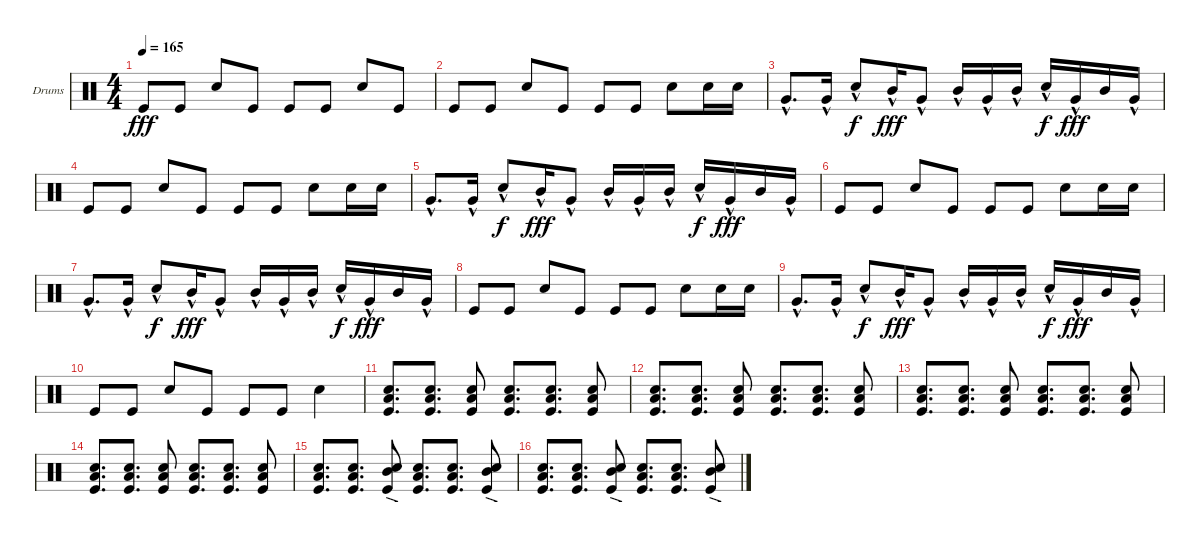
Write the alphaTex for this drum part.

\defaultSystemsLayout 4
\bracketExtendMode groupsimilarinstruments
\firstSystemTrackNameOrientation horizontal
\otherSystemsTrackNameOrientation horizontal
\track ("Helders" "Drums") {instrument percussion}
\staff {score}
\articulation defaults
\ts (4 4)
\tempo 165
\clef neutral
\ks c "Kick (hit)".8{dy fff} "Kick (hit)".8 "Snare (hit) 2".8 "Kick (hit)".8 "Kick (hit)".8 "Kick (hit)".8 "Snare (hit) 2".8 "Kick (hit)".8
|
"Kick (hit)".8 "Kick (hit)".8 "Snare (hit) 2".8 "Kick (hit)".8 "Kick (hit)".8 "Kick (hit)".8 "Snare (hit) 2".8 "Snare (hit) 2".16 "Snare (hit) 2".16 |
"Very Low Tom (hit)"{hac}.8{d} "Very Low Tom (hit)"{hac}.16 "Snare (hit) 2"{hac}.8{dy f} "Mid Tom (hit)"{hac}.16{dy fff} "Very Low Tom (hit)"{hac}.8 "Mid Tom (hit)"{hac}.16 "Very Low Tom (hit)"{hac}.16 "Mid Tom (hit)"{hac}.16 "Snare (hit) 2"{hac}.16{dy f} "Very Low Tom (hit)"{hac}.16{dy fff} "Mid Tom (hit)".16 "Very Low Tom (hit)"{hac}.16 |
"Kick (hit)".8 "Kick (hit)".8 "Snare (hit) 2".8 "Kick (hit)".8 "Kick (hit)".8 "Kick (hit)".8 "Snare (hit) 2".8 "Snare (hit) 2".16 "Snare (hit) 2".16 |
"Very Low Tom (hit)"{hac}.8{d} "Very Low Tom (hit)"{hac}.16 "Snare (hit) 2"{hac}.8{dy f} "Mid Tom (hit)"{hac}.16{dy fff} "Very Low Tom (hit)"{hac}.8 "Mid Tom (hit)"{hac}.16 "Very Low Tom (hit)"{hac}.16 "Mid Tom (hit)"{hac}.16 "Snare (hit) 2"{hac}.16{dy f} "Very Low Tom (hit)"{hac}.16{dy fff} "Mid Tom (hit)".16 "Very Low Tom (hit)"{hac}.16 |
"Kick (hit)".8 "Kick (hit)".8 "Snare (hit) 2".8 "Kick (hit)".8 "Kick (hit)".8 "Kick (hit)".8 "Snare (hit) 2".8 "Snare (hit) 2".16 "Snare (hit) 2".16 |
"Very Low Tom (hit)"{hac}.8{d} "Very Low Tom (hit)"{hac}.16 "Snare (hit) 2"{hac}.8{dy f} "Mid Tom (hit)"{hac}.16{dy fff} "Very Low Tom (hit)"{hac}.8 "Mid Tom (hit)"{hac}.16 "Very Low Tom (hit)"{hac}.16 "Mid Tom (hit)"{hac}.16 "Snare (hit) 2"{hac}.16{dy f} "Very Low Tom (hit)"{hac}.16{dy fff} "Mid Tom (hit)".16 "Very Low Tom (hit)"{hac}.16 |
"Kick (hit)".8 "Kick (hit)".8 "Snare (hit) 2".8 "Kick (hit)".8 "Kick (hit)".8 "Kick (hit)".8 "Snare (hit) 2".8 "Snare (hit) 2".16 "Snare (hit) 2".16 |
"Very Low Tom (hit)"{hac}.8{d} "Very Low Tom (hit)"{hac}.16 "Snare (hit) 2"{hac}.8{dy f} "Mid Tom (hit)"{hac}.16{dy fff} "Very Low Tom (hit)"{hac}.8 "Mid Tom (hit)"{hac}.16 "Very Low Tom (hit)"{hac}.16 "Mid Tom (hit)"{hac}.16 "Snare (hit) 2"{hac}.16{dy f} "Very Low Tom (hit)"{hac}.16{dy fff} "Mid Tom (hit)".16 "Very Low Tom (hit)"{hac}.16 |
"Kick (hit)".8 "Kick (hit)".8 "Snare (hit) 2".8 "Kick (hit)".8 "Kick (hit)".8 "Kick (hit)".8 "Snare (hit) 2".4 |
("Snare (hit) 2" "Kick (hit)" "Low Tom (hit)").8{d} ("Snare (hit) 2" "Kick (hit)" "Low Tom (hit)").8{d} ("Snare (hit) 2" "Kick (hit)" "Low Tom (hit)").8 ("Snare (hit) 2" "Kick (hit)" "Low Tom (hit)").8{d} ("Snare (hit) 2" "Kick (hit)" "Low Tom (hit)").8{d} ("Snare (hit) 2" "Kick (hit)" "Low Tom (hit)").8 |
("Snare (hit) 2" "Kick (hit)" "Low Tom (hit)").8{d} ("Snare (hit) 2" "Kick (hit)" "Low Tom (hit)").8{d} ("Snare (hit) 2" "Kick (hit)" "Low Tom (hit)").8 ("Snare (hit) 2" "Kick (hit)" "Low Tom (hit)").8{d} ("Snare (hit) 2" "Kick (hit)" "Low Tom (hit)").8{d} ("Snare (hit) 2" "Kick (hit)" "Low Tom (hit)").8 |
("Snare (hit) 2" "Kick (hit)" "Low Tom (hit)").8{d} ("Snare (hit) 2" "Kick (hit)" "Low Tom (hit)").8{d} ("Snare (hit) 2" "Kick (hit)" "Low Tom (hit)").8 ("Snare (hit) 2" "Kick (hit)" "Low Tom (hit)").8{d} ("Snare (hit) 2" "Kick (hit)" "Low Tom (hit)").8{d} ("Snare (hit) 2" "Kick (hit)" "Low Tom (hit)").8 |
("Snare (hit) 2" "Kick (hit)" "Low Tom (hit)").8{d} ("Snare (hit) 2" "Kick (hit)" "Low Tom (hit)").8{d} ("Snare (hit) 2" "Kick (hit)" "Low Tom (hit)").8 ("Snare (hit) 2" "Kick (hit)" "Low Tom (hit)").8{d} ("Snare (hit) 2" "Kick (hit)" "Low Tom (hit)").8{d} ("Snare (hit) 2" "Kick (hit)" "Low Tom (hit)").8 |
("Snare (hit) 2" "Kick (hit)" "Low Tom (hit)").8{d} ("Snare (hit) 2" "Kick (hit)" "Low Tom (hit)").8{d} ("Snare (hit) 2" "Kick (hit)" "Mid Tom (hit)"{ac}).8 ("Snare (hit) 2" "Kick (hit)" "Low Tom (hit)").8{d} ("Snare (hit) 2" "Kick (hit)" "Low Tom (hit)").8{d} ("Snare (hit) 2" "Kick (hit)" "Mid Tom (hit)"{ac}).8 |
("Snare (hit) 2" "Kick (hit)" "Low Tom (hit)").8{d} ("Snare (hit) 2" "Kick (hit)" "Low Tom (hit)").8{d} ("Snare (hit) 2" "Kick (hit)" "Mid Tom (hit)"{ac}).8 ("Snare (hit) 2" "Kick (hit)" "Low Tom (hit)").8{d} ("Snare (hit) 2" "Kick (hit)" "Low Tom (hit)").8{d} ("Snare (hit) 2" "Kick (hit)" "Mid Tom (hit)"{ac}).8
